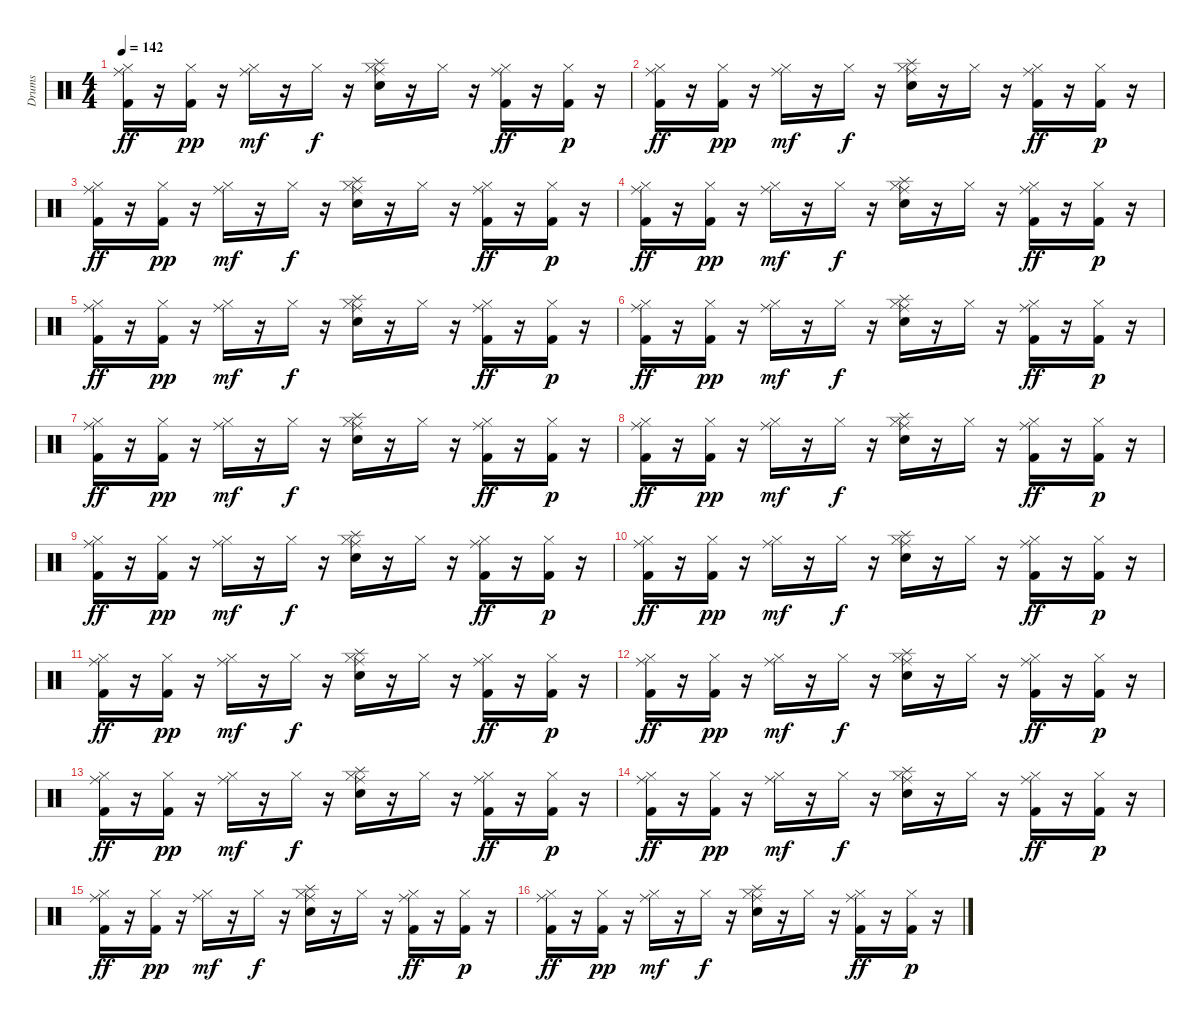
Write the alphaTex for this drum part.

\track ("Drums" "Drums") {instrument percussion}
\staff {score}
\articulation defaults
\ts (4 4)
\tempo 142
\clef neutral
\ks c
("Ride (middle)" "Hi-Hat (closed)" "Kick (hit) 2").16{dy ff} r.16 ("Hi-Hat (closed)" "Kick (hit) 2").16{dy pp} r.16 ("Ride (middle)" "Hi-Hat (closed)").16{dy mf} r.16 "Hi-Hat (closed)".16{dy f} r.16 ("Ride (middle)" "Hi-Hat (closed)" "Splash (hit)" "Snare (hit) 2").16 r.16 "Hi-Hat (closed)".16 r.16 ("Ride (middle)" "Hi-Hat (closed)" "Kick (hit) 2").16{dy ff} r.16 ("Hi-Hat (closed)" "Kick (hit) 2").16{dy p} r.16 |
("Ride (middle)" "Hi-Hat (closed)" "Kick (hit) 2").16{dy ff} r.16 ("Hi-Hat (closed)" "Kick (hit) 2").16{dy pp} r.16 ("Ride (middle)" "Hi-Hat (closed)").16{dy mf} r.16 "Hi-Hat (closed)".16{dy f} r.16 ("Ride (middle)" "Hi-Hat (closed)" "Splash (hit)" "Snare (hit) 2").16 r.16 "Hi-Hat (closed)".16 r.16 ("Ride (middle)" "Hi-Hat (closed)" "Kick (hit) 2").16{dy ff} r.16 ("Hi-Hat (closed)" "Kick (hit) 2").16{dy p} r.16 |
("Ride (middle)" "Hi-Hat (closed)" "Kick (hit) 2").16{dy ff} r.16 ("Hi-Hat (closed)" "Kick (hit) 2").16{dy pp} r.16 ("Ride (middle)" "Hi-Hat (closed)").16{dy mf} r.16 "Hi-Hat (closed)".16{dy f} r.16 ("Ride (middle)" "Hi-Hat (closed)" "Splash (hit)" "Snare (hit) 2").16 r.16 "Hi-Hat (closed)".16 r.16 ("Ride (middle)" "Hi-Hat (closed)" "Kick (hit) 2").16{dy ff} r.16 ("Hi-Hat (closed)" "Kick (hit) 2").16{dy p} r.16 |
("Ride (middle)" "Hi-Hat (closed)" "Kick (hit) 2").16{dy ff} r.16 ("Hi-Hat (closed)" "Kick (hit) 2").16{dy pp} r.16 ("Ride (middle)" "Hi-Hat (closed)").16{dy mf} r.16 "Hi-Hat (closed)".16{dy f} r.16 ("Ride (middle)" "Hi-Hat (closed)" "Splash (hit)" "Snare (hit) 2").16 r.16 "Hi-Hat (closed)".16 r.16 ("Ride (middle)" "Hi-Hat (closed)" "Kick (hit) 2").16{dy ff} r.16 ("Hi-Hat (closed)" "Kick (hit) 2").16{dy p} r.16 |
("Ride (middle)" "Hi-Hat (closed)" "Kick (hit) 2").16{dy ff} r.16 ("Hi-Hat (closed)" "Kick (hit) 2").16{dy pp} r.16 ("Ride (middle)" "Hi-Hat (closed)").16{dy mf} r.16 "Hi-Hat (closed)".16{dy f} r.16 ("Ride (middle)" "Hi-Hat (closed)" "Splash (hit)" "Snare (hit) 2").16 r.16 "Hi-Hat (closed)".16 r.16 ("Ride (middle)" "Hi-Hat (closed)" "Kick (hit) 2").16{dy ff} r.16 ("Hi-Hat (closed)" "Kick (hit) 2").16{dy p} r.16 |
("Ride (middle)" "Hi-Hat (closed)" "Kick (hit) 2").16{dy ff} r.16 ("Hi-Hat (closed)" "Kick (hit) 2").16{dy pp} r.16 ("Ride (middle)" "Hi-Hat (closed)").16{dy mf} r.16 "Hi-Hat (closed)".16{dy f} r.16 ("Ride (middle)" "Hi-Hat (closed)" "Splash (hit)" "Snare (hit) 2").16 r.16 "Hi-Hat (closed)".16 r.16 ("Ride (middle)" "Hi-Hat (closed)" "Kick (hit) 2").16{dy ff} r.16 ("Hi-Hat (closed)" "Kick (hit) 2").16{dy p} r.16 |
("Ride (middle)" "Hi-Hat (closed)" "Kick (hit) 2").16{dy ff} r.16 ("Hi-Hat (closed)" "Kick (hit) 2").16{dy pp} r.16 ("Ride (middle)" "Hi-Hat (closed)").16{dy mf} r.16 "Hi-Hat (closed)".16{dy f} r.16 ("Ride (middle)" "Hi-Hat (closed)" "Splash (hit)" "Snare (hit) 2").16 r.16 "Hi-Hat (closed)".16 r.16 ("Ride (middle)" "Hi-Hat (closed)" "Kick (hit) 2").16{dy ff} r.16 ("Hi-Hat (closed)" "Kick (hit) 2").16{dy p} r.16 |
("Ride (middle)" "Hi-Hat (closed)" "Kick (hit) 2").16{dy ff} r.16 ("Hi-Hat (closed)" "Kick (hit) 2").16{dy pp} r.16 ("Ride (middle)" "Hi-Hat (closed)").16{dy mf} r.16 "Hi-Hat (closed)".16{dy f} r.16 ("Ride (middle)" "Hi-Hat (closed)" "Splash (hit)" "Snare (hit) 2").16 r.16 "Hi-Hat (closed)".16 r.16 ("Ride (middle)" "Hi-Hat (closed)" "Kick (hit) 2").16{dy ff} r.16 ("Hi-Hat (closed)" "Kick (hit) 2").16{dy p} r.16 |
("Ride (middle)" "Hi-Hat (closed)" "Kick (hit) 2").16{dy ff} r.16 ("Hi-Hat (closed)" "Kick (hit) 2").16{dy pp} r.16 ("Ride (middle)" "Hi-Hat (closed)").16{dy mf} r.16 "Hi-Hat (closed)".16{dy f} r.16 ("Ride (middle)" "Hi-Hat (closed)" "Splash (hit)" "Snare (hit) 2").16 r.16 "Hi-Hat (closed)".16 r.16 ("Ride (middle)" "Hi-Hat (closed)" "Kick (hit) 2").16{dy ff} r.16 ("Hi-Hat (closed)" "Kick (hit) 2").16{dy p} r.16 |
("Ride (middle)" "Hi-Hat (closed)" "Kick (hit) 2").16{dy ff} r.16 ("Hi-Hat (closed)" "Kick (hit) 2").16{dy pp} r.16 ("Ride (middle)" "Hi-Hat (closed)").16{dy mf} r.16 "Hi-Hat (closed)".16{dy f} r.16 ("Ride (middle)" "Hi-Hat (closed)" "Splash (hit)" "Snare (hit) 2").16 r.16 "Hi-Hat (closed)".16 r.16 ("Ride (middle)" "Hi-Hat (closed)" "Kick (hit) 2").16{dy ff} r.16 ("Hi-Hat (closed)" "Kick (hit) 2").16{dy p} r.16 |
("Ride (middle)" "Hi-Hat (closed)" "Kick (hit) 2").16{dy ff} r.16 ("Hi-Hat (closed)" "Kick (hit) 2").16{dy pp} r.16 ("Ride (middle)" "Hi-Hat (closed)").16{dy mf} r.16 "Hi-Hat (closed)".16{dy f} r.16 ("Ride (middle)" "Hi-Hat (closed)" "Splash (hit)" "Snare (hit) 2").16 r.16 "Hi-Hat (closed)".16 r.16 ("Ride (middle)" "Hi-Hat (closed)" "Kick (hit) 2").16{dy ff} r.16 ("Hi-Hat (closed)" "Kick (hit) 2").16{dy p} r.16 |
("Ride (middle)" "Hi-Hat (closed)" "Kick (hit) 2").16{dy ff} r.16 ("Hi-Hat (closed)" "Kick (hit) 2").16{dy pp} r.16 ("Ride (middle)" "Hi-Hat (closed)").16{dy mf} r.16 "Hi-Hat (closed)".16{dy f} r.16 ("Ride (middle)" "Hi-Hat (closed)" "Splash (hit)" "Snare (hit) 2").16 r.16 "Hi-Hat (closed)".16 r.16 ("Ride (middle)" "Hi-Hat (closed)" "Kick (hit) 2").16{dy ff} r.16 ("Hi-Hat (closed)" "Kick (hit) 2").16{dy p} r.16 |
("Ride (middle)" "Hi-Hat (closed)" "Kick (hit) 2").16{dy ff} r.16 ("Hi-Hat (closed)" "Kick (hit) 2").16{dy pp} r.16 ("Ride (middle)" "Hi-Hat (closed)").16{dy mf} r.16 "Hi-Hat (closed)".16{dy f} r.16 ("Ride (middle)" "Hi-Hat (closed)" "Splash (hit)" "Snare (hit) 2").16 r.16 "Hi-Hat (closed)".16 r.16 ("Ride (middle)" "Hi-Hat (closed)" "Kick (hit) 2").16{dy ff} r.16 ("Hi-Hat (closed)" "Kick (hit) 2").16{dy p} r.16 |
("Ride (middle)" "Hi-Hat (closed)" "Kick (hit) 2").16{dy ff} r.16 ("Hi-Hat (closed)" "Kick (hit) 2").16{dy pp} r.16 ("Ride (middle)" "Hi-Hat (closed)").16{dy mf} r.16 "Hi-Hat (closed)".16{dy f} r.16 ("Ride (middle)" "Hi-Hat (closed)" "Splash (hit)" "Snare (hit) 2").16 r.16 "Hi-Hat (closed)".16 r.16 ("Ride (middle)" "Hi-Hat (closed)" "Kick (hit) 2").16{dy ff} r.16 ("Hi-Hat (closed)" "Kick (hit) 2").16{dy p} r.16 |
("Ride (middle)" "Hi-Hat (closed)" "Kick (hit) 2").16{dy ff} r.16 ("Hi-Hat (closed)" "Kick (hit) 2").16{dy pp} r.16 ("Ride (middle)" "Hi-Hat (closed)").16{dy mf} r.16 "Hi-Hat (closed)".16{dy f} r.16 ("Ride (middle)" "Hi-Hat (closed)" "Splash (hit)" "Snare (hit) 2").16 r.16 "Hi-Hat (closed)".16 r.16 ("Ride (middle)" "Hi-Hat (closed)" "Kick (hit) 2").16{dy ff} r.16 ("Hi-Hat (closed)" "Kick (hit) 2").16{dy p} r.16 |
("Ride (middle)" "Hi-Hat (closed)" "Kick (hit) 2").16{dy ff} r.16 ("Hi-Hat (closed)" "Kick (hit) 2").16{dy pp} r.16 ("Ride (middle)" "Hi-Hat (closed)").16{dy mf} r.16 "Hi-Hat (closed)".16{dy f} r.16 ("Ride (middle)" "Hi-Hat (closed)" "Splash (hit)" "Snare (hit) 2").16 r.16 "Hi-Hat (closed)".16 r.16 ("Ride (middle)" "Hi-Hat (closed)" "Kick (hit) 2").16{dy ff} r.16 ("Hi-Hat (closed)" "Kick (hit) 2").16{dy p} r.16
